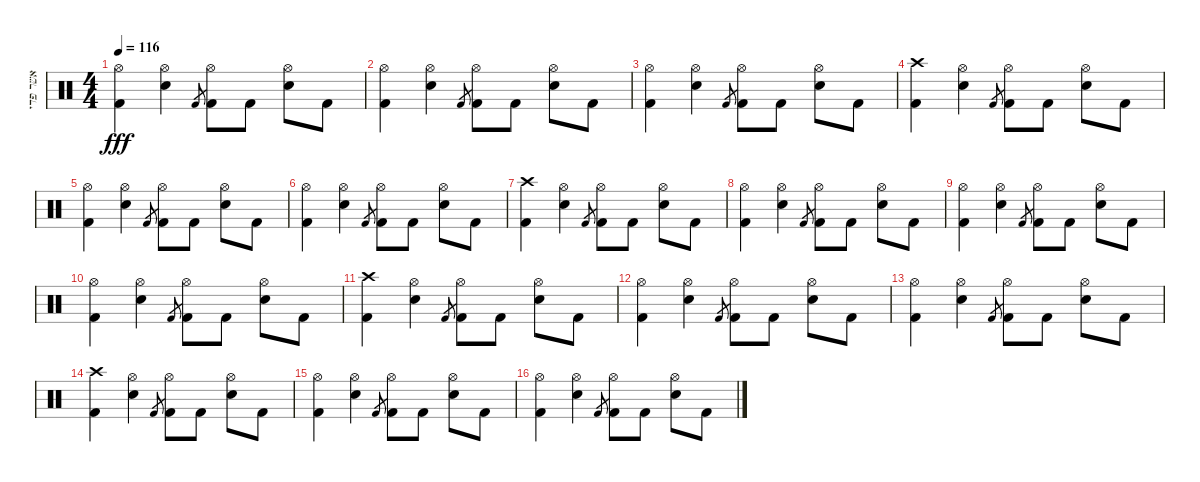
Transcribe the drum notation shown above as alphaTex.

\track ("אשר פדי" "אשר פדי") {instrument percussion}
\staff {score}
\articulation defaults
\ts (4 4)
\tempo 116
\clef neutral
\ks c
("Hi-Hat (open)" "Kick (hit) 2").4{dy fff} ("Hi-Hat (open)" "Snare (hit) 2").4 "Kick (hit) 2".8{gr} ("Hi-Hat (open)" "Kick (hit) 2").8 "Kick (hit) 2".8 ("Hi-Hat (open)" "Electric Snare (hit)").8 "Kick (hit) 2".8 |
("Hi-Hat (open)" "Kick (hit) 2").4 ("Hi-Hat (open)" "Electric Snare (hit)").4 "Kick (hit) 2".8{gr} ("Hi-Hat (open)" "Kick (hit) 2").8 "Kick (hit) 2".8 ("Hi-Hat (open)" "Electric Snare (hit)").8 "Kick (hit) 2".8 |
("Hi-Hat (open)" "Kick (hit) 2").4 ("Hi-Hat (open)" "Electric Snare (hit)").4 "Kick (hit) 2".8{gr} ("Hi-Hat (open)" "Kick (hit) 2").8 "Kick (hit) 2".8 ("Hi-Hat (open)" "Electric Snare (hit)").8 "Kick (hit) 2".8 |
("Crash high (hit)" "Kick (hit) 2").4 ("Hi-Hat (open)" "Electric Snare (hit)").4 "Kick (hit) 2".8{gr} ("Hi-Hat (open)" "Kick (hit) 2").8 "Kick (hit) 2".8 ("Hi-Hat (open)" "Snare (hit) 2").8 "Kick (hit) 2".8 |
("Hi-Hat (open)" "Kick (hit) 2").4 ("Hi-Hat (open)" "Snare (hit) 2").4 "Kick (hit) 2".8{gr} ("Hi-Hat (open)" "Kick (hit) 2").8 "Kick (hit) 2".8 ("Hi-Hat (open)" "Electric Snare (hit)").8 "Kick (hit) 2".8 |
("Hi-Hat (open)" "Kick (hit) 2").4 ("Hi-Hat (open)" "Electric Snare (hit)").4 "Kick (hit) 2".8{gr} ("Hi-Hat (open)" "Kick (hit) 2").8 "Kick (hit) 2".8 ("Hi-Hat (open)" "Electric Snare (hit)").8 "Kick (hit) 2".8 |
("Crash high (hit)" "Kick (hit) 2").4 ("Hi-Hat (open)" "Electric Snare (hit)").4 "Kick (hit) 2".8{gr} ("Hi-Hat (open)" "Kick (hit) 2").8 "Kick (hit) 2".8 ("Hi-Hat (open)" "Snare (hit) 2").8 "Kick (hit) 2".8 |
("Hi-Hat (open)" "Kick (hit) 2").4 ("Hi-Hat (open)" "Snare (hit) 2").4 "Kick (hit) 2".8{gr} ("Hi-Hat (open)" "Kick (hit) 2").8 "Kick (hit) 2".8 ("Hi-Hat (open)" "Electric Snare (hit)").8 "Kick (hit) 2".8 |
("Hi-Hat (open)" "Kick (hit) 2").4 ("Hi-Hat (open)" "Electric Snare (hit)").4 "Kick (hit) 2".8{gr} ("Hi-Hat (open)" "Kick (hit) 2").8 "Kick (hit) 2".8 ("Hi-Hat (open)" "Electric Snare (hit)").8 "Kick (hit) 2".8 |
("Hi-Hat (open)" "Kick (hit) 2").4 ("Hi-Hat (open)" "Electric Snare (hit)").4 "Kick (hit) 2".8{gr} ("Hi-Hat (open)" "Kick (hit) 2").8 "Kick (hit) 2".8 ("Hi-Hat (open)" "Electric Snare (hit)").8 "Kick (hit) 2".8 |
("Crash high (hit)" "Kick (hit) 2").4 ("Hi-Hat (open)" "Electric Snare (hit)").4 "Kick (hit) 2".8{gr} ("Hi-Hat (open)" "Kick (hit) 2").8 "Kick (hit) 2".8 ("Hi-Hat (open)" "Snare (hit) 2").8 "Kick (hit) 2".8 |
("Hi-Hat (open)" "Kick (hit) 2").4 ("Hi-Hat (open)" "Snare (hit) 2").4 "Kick (hit) 2".8{gr} ("Hi-Hat (open)" "Kick (hit) 2").8 "Kick (hit) 2".8 ("Hi-Hat (open)" "Electric Snare (hit)").8 "Kick (hit) 2".8 |
("Hi-Hat (open)" "Kick (hit) 2").4 ("Hi-Hat (open)" "Electric Snare (hit)").4 "Kick (hit) 2".8{gr} ("Hi-Hat (open)" "Kick (hit) 2").8 "Kick (hit) 2".8 ("Hi-Hat (open)" "Electric Snare (hit)").8 "Kick (hit) 2".8 |
("Crash high (hit)" "Kick (hit) 2").4 ("Hi-Hat (open)" "Electric Snare (hit)").4 "Kick (hit) 2".8{gr} ("Hi-Hat (open)" "Kick (hit) 2").8 "Kick (hit) 2".8 ("Hi-Hat (open)" "Snare (hit) 2").8 "Kick (hit) 2".8 |
("Hi-Hat (open)" "Kick (hit) 2").4 ("Hi-Hat (open)" "Snare (hit) 2").4 "Kick (hit) 2".8{gr} ("Hi-Hat (open)" "Kick (hit) 2").8 "Kick (hit) 2".8 ("Hi-Hat (open)" "Electric Snare (hit)").8 "Kick (hit) 2".8 |
("Hi-Hat (open)" "Kick (hit) 2").4 ("Hi-Hat (open)" "Electric Snare (hit)").4 "Kick (hit) 2".8{gr} ("Hi-Hat (open)" "Kick (hit) 2").8 "Kick (hit) 2".8 ("Hi-Hat (open)" "Electric Snare (hit)").8 "Kick (hit) 2".8
